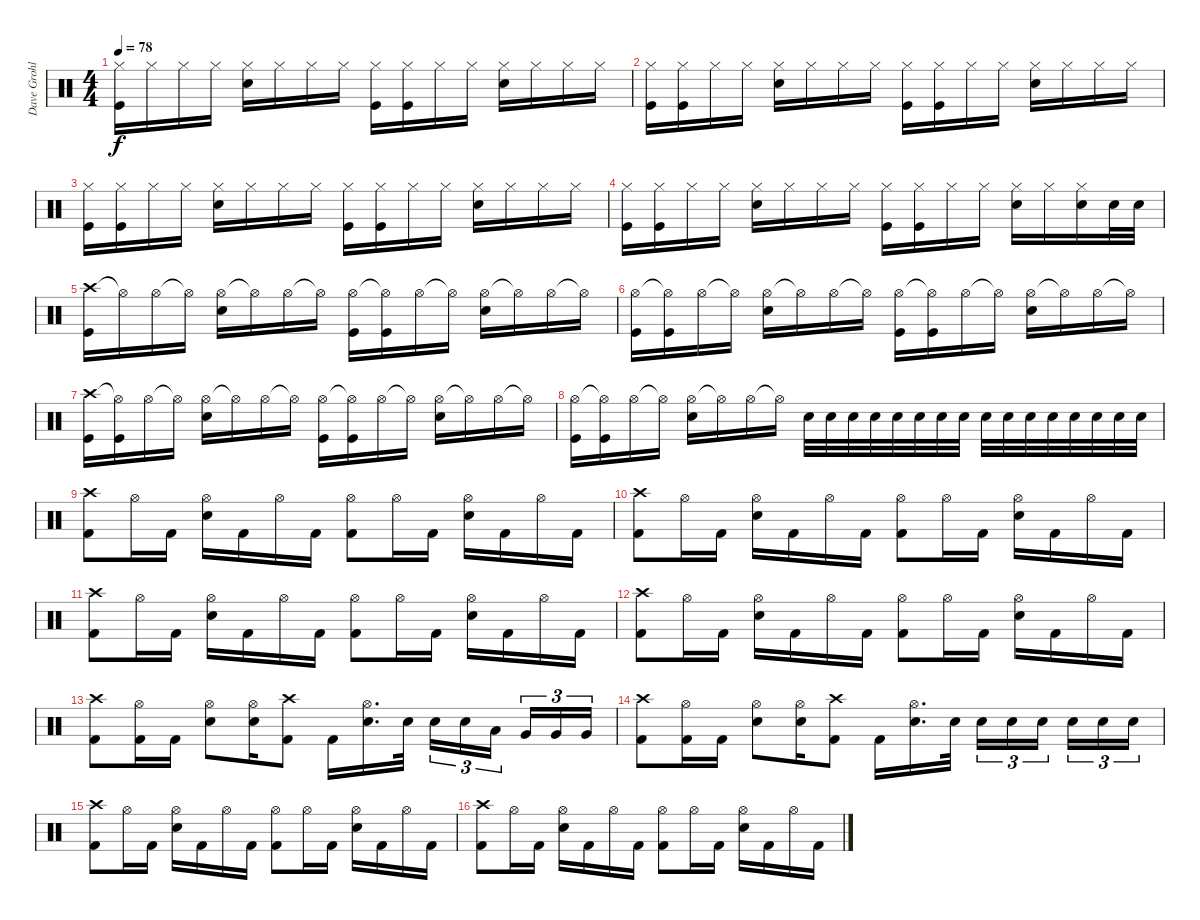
\track ("Dave Grohl" "Dave Grohl") {instrument percussion}
\staff {score}
\articulation defaults
\ts (4 4)
\tempo 78
\clef neutral
\ks c
("Hi-Hat (closed)" "Kick (hit)").16{dy f} "Hi-Hat (closed)".16 "Hi-Hat (closed)".16 "Hi-Hat (closed)".16 ("Hi-Hat (closed)" "Electric Snare (hit)").16 "Hi-Hat (closed)".16 "Hi-Hat (closed)".16 "Hi-Hat (closed)".16 ("Hi-Hat (closed)" "Kick (hit)").16 ("Hi-Hat (closed)" "Kick (hit)").16 "Hi-Hat (closed)".16 "Hi-Hat (closed)".16 ("Hi-Hat (closed)" "Electric Snare (hit)").16 "Hi-Hat (closed)".16 "Hi-Hat (closed)".16 "Hi-Hat (closed)".16 |
("Hi-Hat (closed)" "Kick (hit)").16 ("Hi-Hat (closed)" "Kick (hit)").16 "Hi-Hat (closed)".16 "Hi-Hat (closed)".16 ("Hi-Hat (closed)" "Electric Snare (hit)").16 "Hi-Hat (closed)".16 "Hi-Hat (closed)".16 "Hi-Hat (closed)".16 ("Hi-Hat (closed)" "Kick (hit)").16 ("Hi-Hat (closed)" "Kick (hit)").16 "Hi-Hat (closed)".16 "Hi-Hat (closed)".16 ("Hi-Hat (closed)" "Electric Snare (hit)").16 "Hi-Hat (closed)".16 "Hi-Hat (closed)".16 "Hi-Hat (closed)".16 |
("Hi-Hat (closed)" "Kick (hit)").16 ("Hi-Hat (closed)" "Kick (hit)").16 "Hi-Hat (closed)".16 "Hi-Hat (closed)".16 ("Hi-Hat (closed)" "Electric Snare (hit)").16 "Hi-Hat (closed)".16 "Hi-Hat (closed)".16 "Hi-Hat (closed)".16 ("Hi-Hat (closed)" "Kick (hit)").16 ("Hi-Hat (closed)" "Kick (hit)").16 "Hi-Hat (closed)".16 "Hi-Hat (closed)".16 ("Hi-Hat (closed)" "Electric Snare (hit)").16 "Hi-Hat (closed)".16 "Hi-Hat (closed)".16 "Hi-Hat (closed)".16 |
("Hi-Hat (closed)" "Kick (hit)").16 ("Hi-Hat (closed)" "Kick (hit)").16 "Hi-Hat (closed)".16 "Hi-Hat (closed)".16 ("Hi-Hat (closed)" "Electric Snare (hit)").16 "Hi-Hat (closed)".16 "Hi-Hat (closed)".16 "Hi-Hat (closed)".16 ("Hi-Hat (closed)" "Kick (hit)").16 ("Hi-Hat (closed)" "Kick (hit)").16 "Hi-Hat (closed)".16 "Hi-Hat (closed)".16 ("Hi-Hat (closed)" "Electric Snare (hit)").16 "Hi-Hat (closed)".16 ("Hi-Hat (closed)" "Electric Snare (hit)").16 "Electric Snare (hit)".32 "Electric Snare (hit)".32 |
("Crash high (hit)" "Kick (hit)").16 "Hi-Hat (open)"{t}.16 "Hi-Hat (open)".16 "Hi-Hat (open)"{t}.16 ("Hi-Hat (open)" "Electric Snare (hit)").16 "Hi-Hat (open)"{t}.16 "Hi-Hat (open)".16 "Hi-Hat (open)"{t}.16 ("Hi-Hat (open)" "Kick (hit)").16 ("Hi-Hat (open)"{t} "Kick (hit)").16 "Hi-Hat (open)".16 "Hi-Hat (open)"{t}.16 ("Hi-Hat (open)" "Electric Snare (hit)").16 "Hi-Hat (open)"{t}.16 "Hi-Hat (open)".16 "Hi-Hat (open)"{t}.16 |
("Hi-Hat (open)" "Kick (hit)").16 ("Hi-Hat (open)"{t} "Kick (hit)").16 "Hi-Hat (open)".16 "Hi-Hat (open)"{t}.16 ("Hi-Hat (open)" "Electric Snare (hit)").16 "Hi-Hat (open)"{t}.16 "Hi-Hat (open)".16 "Hi-Hat (open)"{t}.16 ("Hi-Hat (open)" "Kick (hit)").16 ("Hi-Hat (open)"{t} "Kick (hit)").16 "Hi-Hat (open)".16 "Hi-Hat (open)"{t}.16 ("Hi-Hat (open)" "Electric Snare (hit)").16 "Hi-Hat (open)"{t}.16 "Hi-Hat (open)".16 "Hi-Hat (open)"{t}.16 |
("Crash high (hit)" "Kick (hit)").16 ("Hi-Hat (open)"{t} "Kick (hit)").16 "Hi-Hat (open)".16 "Hi-Hat (open)"{t}.16 ("Hi-Hat (open)" "Electric Snare (hit)").16 "Hi-Hat (open)"{t}.16 "Hi-Hat (open)".16 "Hi-Hat (open)"{t}.16 ("Hi-Hat (open)" "Kick (hit)").16 ("Hi-Hat (open)"{t} "Kick (hit)").16 "Hi-Hat (open)".16 "Hi-Hat (open)"{t}.16 ("Hi-Hat (open)" "Electric Snare (hit)").16 "Hi-Hat (open)"{t}.16 "Hi-Hat (open)".16 "Hi-Hat (open)"{t}.16 |
("Hi-Hat (open)" "Kick (hit)").16 ("Hi-Hat (open)"{t} "Kick (hit)").16 "Hi-Hat (open)".16 "Hi-Hat (open)"{t}.16 ("Hi-Hat (open)" "Electric Snare (hit)").16 "Hi-Hat (open)"{t}.16 "Hi-Hat (open)".16 "Hi-Hat (open)"{t}.16 "Electric Snare (hit)".32 "Electric Snare (hit)".32 "Electric Snare (hit)".32 "Electric Snare (hit)".32 "Electric Snare (hit)".32 "Electric Snare (hit)".32 "Electric Snare (hit)".32 "Electric Snare (hit)".32 "Electric Snare (hit)".32 "Electric Snare (hit)".32 "Electric Snare (hit)".32 "Electric Snare (hit)".32 "Electric Snare (hit)".32 "Electric Snare (hit)".32 "Electric Snare (hit)".32 "Electric Snare (hit)".32 |
("Crash high (hit)" "Kick (hit) 2").8 "Hi-Hat (open)".16 "Kick (hit) 2".16 ("Hi-Hat (open)" "Snare (hit) 2").16 "Kick (hit) 2".16 "Hi-Hat (open)".16 "Kick (hit) 2".16 ("Hi-Hat (open)" "Kick (hit) 2").8 "Hi-Hat (open)".16 "Kick (hit) 2".16 ("Hi-Hat (open)" "Snare (hit) 2").16 "Kick (hit) 2".16 "Hi-Hat (open)".16 "Kick (hit) 2".16 |
("Crash high (hit)" "Kick (hit) 2").8 "Hi-Hat (open)".16 "Kick (hit) 2".16 ("Hi-Hat (open)" "Snare (hit) 2").16 "Kick (hit) 2".16 "Hi-Hat (open)".16 "Kick (hit) 2".16 ("Hi-Hat (open)" "Kick (hit) 2").8 "Hi-Hat (open)".16 "Kick (hit) 2".16 ("Hi-Hat (open)" "Snare (hit) 2").16 "Kick (hit) 2".16 "Hi-Hat (open)".16 "Kick (hit) 2".16 |
("Crash high (hit)" "Kick (hit) 2").8 "Hi-Hat (open)".16 "Kick (hit) 2".16 ("Hi-Hat (open)" "Snare (hit) 2").16 "Kick (hit) 2".16 "Hi-Hat (open)".16 "Kick (hit) 2".16 ("Hi-Hat (open)" "Kick (hit) 2").8 "Hi-Hat (open)".16 "Kick (hit) 2".16 ("Hi-Hat (open)" "Snare (hit) 2").16 "Kick (hit) 2".16 "Hi-Hat (open)".16 "Kick (hit) 2".16 |
("Crash high (hit)" "Kick (hit) 2").8 "Hi-Hat (open)".16 "Kick (hit) 2".16 ("Hi-Hat (open)" "Snare (hit) 2").16 "Kick (hit) 2".16 "Hi-Hat (open)".16 "Kick (hit) 2".16 ("Hi-Hat (open)" "Kick (hit) 2").8 "Hi-Hat (open)".16 "Kick (hit) 2".16 ("Hi-Hat (open)" "Snare (hit) 2").16 "Kick (hit) 2".16 "Hi-Hat (open)".16 "Kick (hit) 2".16 |
("Crash high (hit)" "Kick (hit) 2").8 ("Hi-Hat (open)" "Kick (hit) 2").16 "Kick (hit) 2".16 ("Hi-Hat (open)" "Snare (hit) 2").8 ("Hi-Hat (open)" "Snare (hit) 2").16 ("Crash high (hit)" "Kick (hit) 2").8 "Kick (hit) 2".16 ("Hi-Hat (open)" "Snare (hit) 2").16{d} "Snare (hit) 2".32 "Snare (hit) 2".16{tu (3 2)} "Snare (hit) 2".16{tu (3 2)} "Low Tom (hit)".16{tu (3 2) beam splitsecondary} "Very Low Tom (hit)".16{tu (3 2)} "Very Low Tom (hit)".16{tu (3 2)} "Very Low Tom (hit)".16{tu (3 2)} |
("Crash high (hit)" "Kick (hit) 2").8 ("Hi-Hat (open)" "Kick (hit) 2").16 "Kick (hit) 2".16 ("Hi-Hat (open)" "Snare (hit) 2").8 ("Hi-Hat (open)" "Snare (hit) 2").16 ("Crash high (hit)" "Kick (hit) 2").8 "Kick (hit) 2".16 ("Hi-Hat (open)" "Snare (hit) 2").16{d} "Snare (hit) 2".32 "Snare (hit) 2".16{tu (3 2)} "Snare (hit) 2".16{tu (3 2)} "Snare (hit) 2".16{tu (3 2) beam splitsecondary} "Snare (hit) 2".16{tu (3 2)} "Snare (hit) 2".16{tu (3 2)} "Snare (hit) 2".16{tu (3 2)} |
("Crash high (hit)" "Kick (hit) 2").8 "Hi-Hat (open)".16 "Kick (hit) 2".16 ("Hi-Hat (open)" "Snare (hit) 2").16 "Kick (hit) 2".16 "Hi-Hat (open)".16 "Kick (hit) 2".16 ("Hi-Hat (open)" "Kick (hit) 2").8 "Hi-Hat (open)".16 "Kick (hit) 2".16 ("Hi-Hat (open)" "Snare (hit) 2").16 "Kick (hit) 2".16 "Hi-Hat (open)".16 "Kick (hit) 2".16 |
("Crash high (hit)" "Kick (hit) 2").8 "Hi-Hat (open)".16 "Kick (hit) 2".16 ("Hi-Hat (open)" "Snare (hit) 2").16 "Kick (hit) 2".16 "Hi-Hat (open)".16 "Kick (hit) 2".16 ("Hi-Hat (open)" "Kick (hit) 2").8 "Hi-Hat (open)".16 "Kick (hit) 2".16 ("Hi-Hat (open)" "Snare (hit) 2").16 "Kick (hit) 2".16 "Hi-Hat (open)".16 "Kick (hit) 2".16
